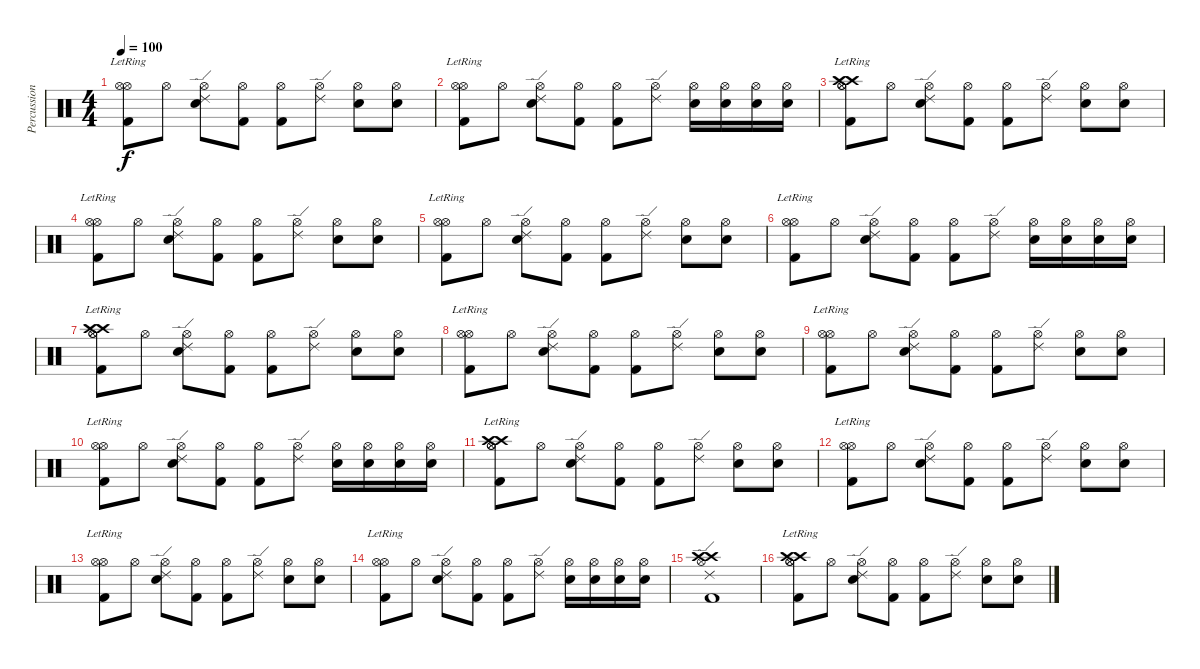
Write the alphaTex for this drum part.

\track ("Percussion" "Percussion") {instrument percussion}
\staff {score}
\articulation defaults
\ts (4 4)
\tempo 100
\clef neutral
\ks c
("Hi-Hat (open)" "Kick (hit) 2"{lr} "Hi-Hat (open)"{lr}).8{dy f} "Hi-Hat (open)".8 ("Ride (edge) 2" "Hi-Hat (open)" "Electric Snare (hit)").8 ("Hi-Hat (open)" "Kick (hit) 2").8 ("Hi-Hat (open)" "Kick (hit) 2").8 ("Ride (edge) 2" "Hi-Hat (open)").8 ("Hi-Hat (open)" "Electric Snare (hit)").8 ("Hi-Hat (open)" "Electric Snare (hit)").8 |
("Hi-Hat (open)" "Kick (hit) 2"{lr} "Hi-Hat (open)"{lr}).8 "Hi-Hat (open)".8 ("Ride (edge) 2" "Hi-Hat (open)" "Electric Snare (hit)").8 ("Hi-Hat (open)" "Kick (hit) 2").8 ("Hi-Hat (open)" "Kick (hit) 2").8 ("Ride (edge) 2" "Hi-Hat (open)").8 ("Hi-Hat (open)" "Electric Snare (hit)").16 ("Hi-Hat (open)" "Electric Snare (hit)").16 ("Hi-Hat (open)" "Electric Snare (hit)").16 ("Hi-Hat (open)" "Electric Snare (hit)").16 |
("Crash high (hit)"{lr} "Hi-Hat (open)" "Kick (hit) 2"{lr} "Hi-Hat (open)"{lr} "Crash high (hit)"{lr}).8 "Hi-Hat (open)".8 ("Ride (edge) 2" "Hi-Hat (open)" "Electric Snare (hit)").8 ("Hi-Hat (open)" "Kick (hit) 2").8 ("Hi-Hat (open)" "Kick (hit) 2").8 ("Ride (edge) 2" "Hi-Hat (open)").8 ("Hi-Hat (open)" "Electric Snare (hit)").8 ("Hi-Hat (open)" "Electric Snare (hit)").8 |
("Hi-Hat (open)" "Kick (hit) 2"{lr} "Hi-Hat (open)"{lr}).8 "Hi-Hat (open)".8 ("Ride (edge) 2" "Hi-Hat (open)" "Electric Snare (hit)").8 ("Hi-Hat (open)" "Kick (hit) 2").8 ("Hi-Hat (open)" "Kick (hit) 2").8 ("Ride (edge) 2" "Hi-Hat (open)").8 ("Hi-Hat (open)" "Electric Snare (hit)").8 ("Hi-Hat (open)" "Electric Snare (hit)").8 |
("Hi-Hat (open)" "Kick (hit) 2"{lr} "Hi-Hat (open)"{lr}).8 "Hi-Hat (open)".8 ("Ride (edge) 2" "Hi-Hat (open)" "Electric Snare (hit)").8 ("Hi-Hat (open)" "Kick (hit) 2").8 ("Hi-Hat (open)" "Kick (hit) 2").8 ("Ride (edge) 2" "Hi-Hat (open)").8 ("Hi-Hat (open)" "Electric Snare (hit)").8 ("Hi-Hat (open)" "Electric Snare (hit)").8 |
("Hi-Hat (open)" "Kick (hit) 2"{lr} "Hi-Hat (open)"{lr}).8 "Hi-Hat (open)".8 ("Ride (edge) 2" "Hi-Hat (open)" "Electric Snare (hit)").8 ("Hi-Hat (open)" "Kick (hit) 2").8 ("Hi-Hat (open)" "Kick (hit) 2").8 ("Ride (edge) 2" "Hi-Hat (open)").8 ("Hi-Hat (open)" "Electric Snare (hit)").16 ("Hi-Hat (open)" "Electric Snare (hit)").16 ("Hi-Hat (open)" "Electric Snare (hit)").16 ("Hi-Hat (open)" "Electric Snare (hit)").16 |
("Crash high (hit)"{lr} "Hi-Hat (open)" "Kick (hit) 2"{lr} "Hi-Hat (open)"{lr} "Crash high (hit)"{lr}).8 "Hi-Hat (open)".8 ("Ride (edge) 2" "Hi-Hat (open)" "Electric Snare (hit)").8 ("Hi-Hat (open)" "Kick (hit) 2").8 ("Hi-Hat (open)" "Kick (hit) 2").8 ("Ride (edge) 2" "Hi-Hat (open)").8 ("Hi-Hat (open)" "Electric Snare (hit)").8 ("Hi-Hat (open)" "Electric Snare (hit)").8 |
("Hi-Hat (open)" "Kick (hit) 2"{lr} "Hi-Hat (open)"{lr}).8 "Hi-Hat (open)".8 ("Ride (edge) 2" "Hi-Hat (open)" "Electric Snare (hit)").8 ("Hi-Hat (open)" "Kick (hit) 2").8 ("Hi-Hat (open)" "Kick (hit) 2").8 ("Ride (edge) 2" "Hi-Hat (open)").8 ("Hi-Hat (open)" "Electric Snare (hit)").8 ("Hi-Hat (open)" "Electric Snare (hit)").8 |
("Hi-Hat (open)" "Kick (hit) 2"{lr} "Hi-Hat (open)"{lr}).8 "Hi-Hat (open)".8 ("Ride (edge) 2" "Hi-Hat (open)" "Electric Snare (hit)").8 ("Hi-Hat (open)" "Kick (hit) 2").8 ("Hi-Hat (open)" "Kick (hit) 2").8 ("Ride (edge) 2" "Hi-Hat (open)").8 ("Hi-Hat (open)" "Electric Snare (hit)").8 ("Hi-Hat (open)" "Electric Snare (hit)").8 |
("Hi-Hat (open)" "Kick (hit) 2"{lr} "Hi-Hat (open)"{lr}).8 "Hi-Hat (open)".8 ("Ride (edge) 2" "Hi-Hat (open)" "Electric Snare (hit)").8 ("Hi-Hat (open)" "Kick (hit) 2").8 ("Hi-Hat (open)" "Kick (hit) 2").8 ("Ride (edge) 2" "Hi-Hat (open)").8 ("Hi-Hat (open)" "Electric Snare (hit)").16 ("Hi-Hat (open)" "Electric Snare (hit)").16 ("Hi-Hat (open)" "Electric Snare (hit)").16 ("Hi-Hat (open)" "Electric Snare (hit)").16 |
("Crash high (hit)"{lr} "Hi-Hat (open)" "Kick (hit) 2"{lr} "Hi-Hat (open)"{lr} "Crash high (hit)"{lr}).8 "Hi-Hat (open)".8 ("Ride (edge) 2" "Hi-Hat (open)" "Electric Snare (hit)").8 ("Hi-Hat (open)" "Kick (hit) 2").8 ("Hi-Hat (open)" "Kick (hit) 2").8 ("Ride (edge) 2" "Hi-Hat (open)").8 ("Hi-Hat (open)" "Electric Snare (hit)").8 ("Hi-Hat (open)" "Electric Snare (hit)").8 |
("Hi-Hat (open)" "Kick (hit) 2"{lr} "Hi-Hat (open)"{lr}).8 "Hi-Hat (open)".8 ("Ride (edge) 2" "Hi-Hat (open)" "Electric Snare (hit)").8 ("Hi-Hat (open)" "Kick (hit) 2").8 ("Hi-Hat (open)" "Kick (hit) 2").8 ("Ride (edge) 2" "Hi-Hat (open)").8 ("Hi-Hat (open)" "Electric Snare (hit)").8 ("Hi-Hat (open)" "Electric Snare (hit)").8 |
("Hi-Hat (open)" "Kick (hit) 2"{lr} "Hi-Hat (open)"{lr}).8 "Hi-Hat (open)".8 ("Ride (edge) 2" "Hi-Hat (open)" "Electric Snare (hit)").8 ("Hi-Hat (open)" "Kick (hit) 2").8 ("Hi-Hat (open)" "Kick (hit) 2").8 ("Ride (edge) 2" "Hi-Hat (open)").8 ("Hi-Hat (open)" "Electric Snare (hit)").8 ("Hi-Hat (open)" "Electric Snare (hit)").8 |
("Hi-Hat (open)" "Kick (hit) 2"{lr} "Hi-Hat (open)"{lr}).8 "Hi-Hat (open)".8 ("Ride (edge) 2" "Hi-Hat (open)" "Electric Snare (hit)").8 ("Hi-Hat (open)" "Kick (hit) 2").8 ("Hi-Hat (open)" "Kick (hit) 2").8 ("Ride (edge) 2" "Hi-Hat (open)").8 ("Hi-Hat (open)" "Electric Snare (hit)").16 ("Hi-Hat (open)" "Electric Snare (hit)").16 ("Hi-Hat (open)" "Electric Snare (hit)").16 ("Hi-Hat (open)" "Electric Snare (hit)").16 |
("Crash high (hit)" "Crash high (hit)" "Kick (hit) 2" "Ride (edge) 2" "Hi-Hat (open)").1 |
("Crash high (hit)"{lr} "Hi-Hat (open)" "Kick (hit) 2"{lr} "Hi-Hat (open)"{lr} "Crash high (hit)"{lr}).8 "Hi-Hat (open)".8 ("Ride (edge) 2" "Hi-Hat (open)" "Electric Snare (hit)").8 ("Hi-Hat (open)" "Kick (hit) 2").8 ("Hi-Hat (open)" "Kick (hit) 2").8 ("Ride (edge) 2" "Hi-Hat (open)").8 ("Hi-Hat (open)" "Electric Snare (hit)").8 ("Hi-Hat (open)" "Electric Snare (hit)").8
